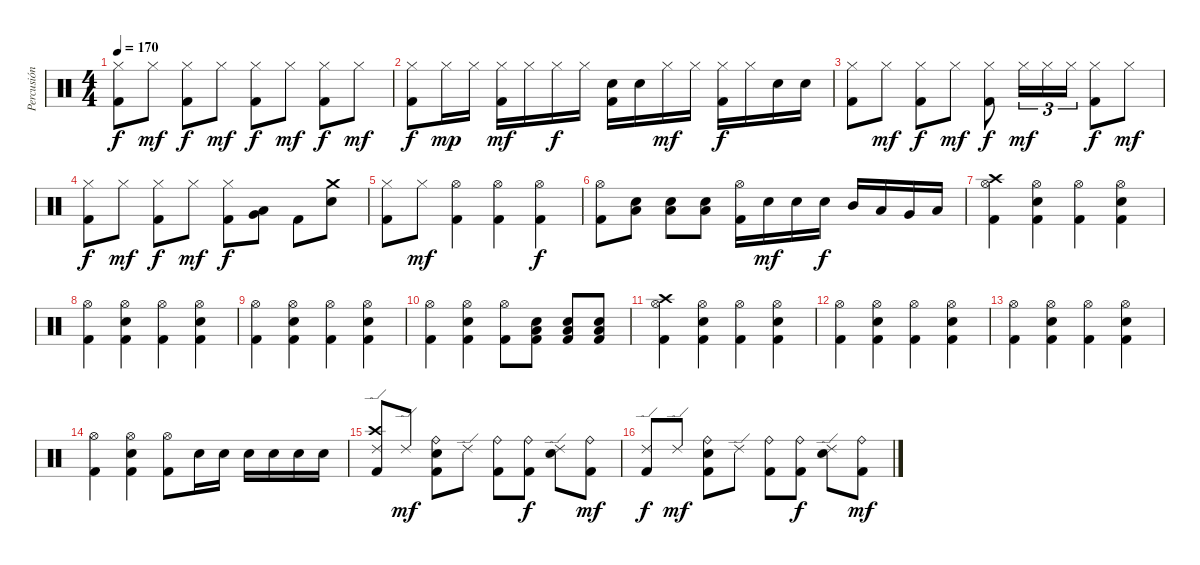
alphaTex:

\track ("Percusión" "Percusión") {instrument percussion}
\staff {score}
\articulation defaults
\ts (4 4)
\tempo 170
\clef neutral
\ks c
("Hi-Hat (closed)" "Kick (hit) 2").8{dy f} "Hi-Hat (closed)".8{dy mf} ("Hi-Hat (closed)" "Kick (hit) 2").8{dy f} "Hi-Hat (closed)".8{dy mf} ("Hi-Hat (closed)" "Kick (hit) 2").8{dy f} "Hi-Hat (closed)".8{dy mf} ("Hi-Hat (closed)" "Kick (hit) 2").8{dy f} "Hi-Hat (closed)".8{dy mf} |
("Hi-Hat (closed)" "Kick (hit) 2").8{dy f} "Hi-Hat (closed)".16{dy mp} "Hi-Hat (closed)".16 ("Hi-Hat (closed)" "Kick (hit) 2").16{dy mf} "Hi-Hat (closed)".16 "Hi-Hat (closed)".16{dy f} "Hi-Hat (closed)".16 ("Electric Snare (hit)" "Kick (hit) 2").16 "Electric Snare (hit)".16 "Hi-Hat (closed)".16{dy mf} "Hi-Hat (closed)".16 ("Hi-Hat (closed)" "Kick (hit) 2").16{dy f} "Hi-Hat (closed)".16 "Electric Snare (hit)".16 "Electric Snare (hit)".16 |
("Hi-Hat (closed)" "Kick (hit) 2").8 "Hi-Hat (closed)".8{dy mf} ("Hi-Hat (closed)" "Kick (hit) 2").8{dy f} "Hi-Hat (closed)".8{dy mf} ("Hi-Hat (closed)" "Kick (hit) 2").8{dy f} "Hi-Hat (closed)".16{tu (3 2) dy mf} "Hi-Hat (closed)".16{tu (3 2)} "Hi-Hat (closed)".16{tu (3 2)} ("Hi-Hat (closed)" "Kick (hit) 2").8{dy f} "Hi-Hat (closed)".8{dy mf} |
("Hi-Hat (closed)" "Kick (hit) 2").8{dy f} "Hi-Hat (closed)".8{dy mf} ("Hi-Hat (closed)" "Kick (hit) 2").8{dy f} "Hi-Hat (closed)".8{dy mf} ("Hi-Hat (closed)" "Kick (hit) 2").8{dy f} ("Low Tom (hit)" "Very Low Tom (hit)").8 "Kick (hit) 2".8 ("Crash medium (hit)" "Electric Snare (hit)").8 |
("Hi-Hat (closed)" "Kick (hit) 2").8 "Hi-Hat (closed)".8{dy mf} ("Hi-Hat (open)" "Kick (hit) 2").4 ("Hi-Hat (open)" "Kick (hit) 2").4 ("Hi-Hat (open)" "Kick (hit) 2").4{dy f} |
("Hi-Hat (open)" "Kick (hit) 2").8 ("Low Floor Tom (hit)" "Electric Snare (hit)").8 ("Low Floor Tom (hit)" "Electric Snare (hit)").8 ("Low Floor Tom (hit)" "Electric Snare (hit)").8 ("Hi-Hat (open)" "Kick (hit) 2").16 "Electric Snare (hit)".16{dy mf} "Electric Snare (hit)".16 "Electric Snare (hit)".16{dy f} "Mid Tom (hit)".16 "Low Tom (hit)".16 "Very Low Tom (hit)".16 "Low Floor Tom (hit)".16 |
("Crash high (hit)" "Hi-Hat (open)" "Kick (hit) 2").4 ("Hi-Hat (open)" "Electric Snare (hit)" "Kick (hit) 2").4 ("Hi-Hat (open)" "Kick (hit) 2").4 ("Hi-Hat (open)" "Electric Snare (hit)" "Kick (hit) 2").4 |
("Hi-Hat (open)" "Kick (hit) 2").4 ("Hi-Hat (open)" "Electric Snare (hit)" "Kick (hit) 2").4 ("Hi-Hat (open)" "Kick (hit) 2").4 ("Hi-Hat (open)" "Electric Snare (hit)" "Kick (hit) 2").4 |
("Hi-Hat (open)" "Kick (hit) 2").4 ("Hi-Hat (open)" "Electric Snare (hit)" "Kick (hit) 2").4 ("Hi-Hat (open)" "Kick (hit) 2").4 ("Hi-Hat (open)" "Electric Snare (hit)" "Kick (hit) 2").4 |
("Hi-Hat (open)" "Kick (hit) 2").4 ("Hi-Hat (open)" "Electric Snare (hit)" "Kick (hit) 2").4 ("Hi-Hat (open)" "Kick (hit) 2").8 ("Electric Snare (hit)" "Low Tom (hit)" "Kick (hit) 2").8 ("Electric Snare (hit)" "Low Tom (hit)" "Kick (hit) 2").8 ("Electric Snare (hit)" "Low Tom (hit)" "Kick (hit) 2").8 |
("Crash high (hit)" "Hi-Hat (open)" "Kick (hit) 2").4 ("Hi-Hat (open)" "Electric Snare (hit)" "Kick (hit) 2").4 ("Hi-Hat (open)" "Kick (hit) 2").4 ("Hi-Hat (open)" "Electric Snare (hit)" "Kick (hit) 2").4 |
("Hi-Hat (open)" "Kick (hit) 2").4 ("Hi-Hat (open)" "Electric Snare (hit)" "Kick (hit) 2").4 ("Hi-Hat (open)" "Kick (hit) 2").4 ("Hi-Hat (open)" "Electric Snare (hit)" "Kick (hit) 2").4 |
("Hi-Hat (open)" "Kick (hit) 2").4 ("Hi-Hat (open)" "Electric Snare (hit)" "Kick (hit) 2").4 ("Hi-Hat (open)" "Kick (hit) 2").4 ("Hi-Hat (open)" "Electric Snare (hit)" "Kick (hit) 2").4 |
("Hi-Hat (open)" "Kick (hit) 2").4 ("Hi-Hat (open)" "Electric Snare (hit)" "Kick (hit) 2").4 ("Hi-Hat (open)" "Kick (hit) 2").8 "Electric Snare (hit)".16 "Electric Snare (hit)".16 "Electric Snare (hit)".16 "Electric Snare (hit)".16 "Electric Snare (hit)".16 "Electric Snare (hit)".16 |
("Crash high (hit)" "Ride (edge) 2" "Kick (hit) 2").8 "Ride (edge) 2".8{dy mf} ("Ride (bell)" "Electric Snare (hit)" "Kick (hit) 2").8 "Ride (edge) 2".8 ("Ride (bell)" "Kick (hit) 2").8 ("Ride (bell)" "Kick (hit) 2").8{dy f} ("Ride (edge) 2" "Electric Snare (hit)").8 ("Ride (bell)" "Kick (hit) 2").8{dy mf} |
("Ride (edge) 2" "Kick (hit) 2").8{dy f} "Ride (edge) 2".8{dy mf} ("Ride (bell)" "Electric Snare (hit)" "Kick (hit) 2").8 "Ride (edge) 2".8 ("Ride (bell)" "Kick (hit) 2").8 ("Ride (bell)" "Kick (hit) 2").8{dy f} ("Ride (edge) 2" "Electric Snare (hit)").8 ("Ride (bell)" "Kick (hit) 2").8{dy mf}
